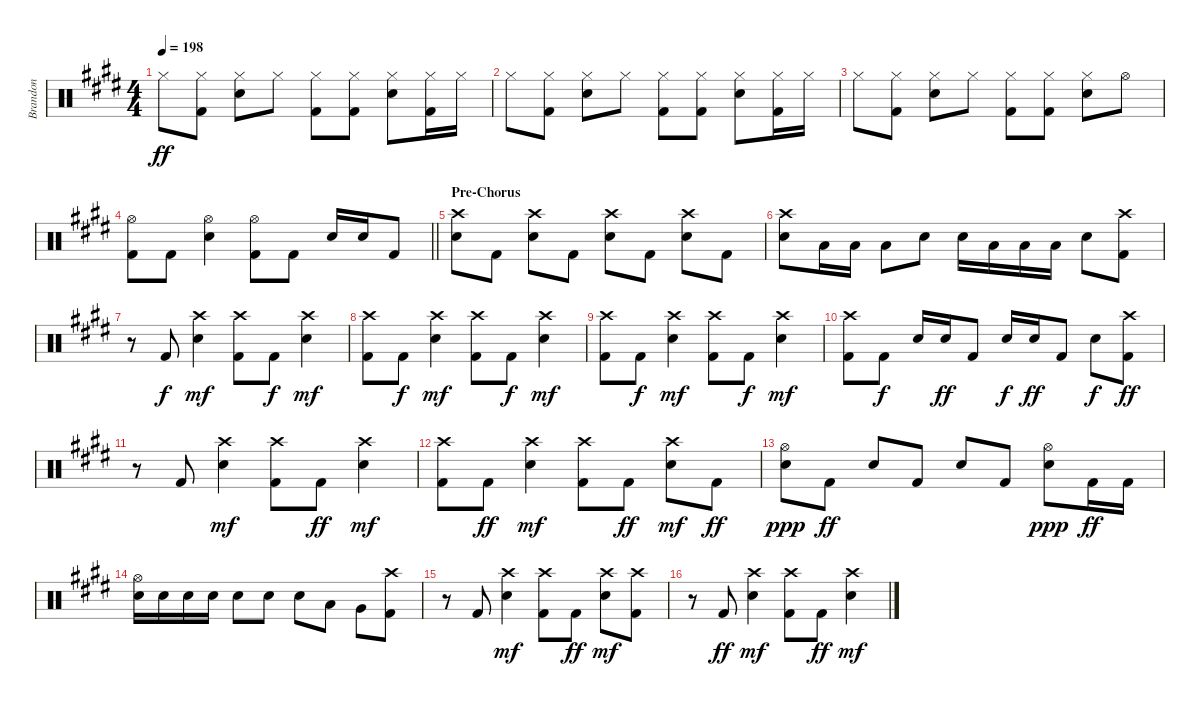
\track ("Brandon" "Brandon") {instrument percussion}
\staff {score}
\articulation defaults
\ts (4 4)
\tempo 198
\clef neutral
\ks e "Hi-Hat (closed)".8{dy ff}
("Kick (hit) 2" "Hi-Hat (closed)").8 ("Snare (hit) 2" "Hi-Hat (closed)").8 "Hi-Hat (closed)".8 ("Kick (hit) 2" "Hi-Hat (closed)").8 ("Kick (hit) 2" "Hi-Hat (closed)").8 ("Snare (hit) 2" "Hi-Hat (closed)").8 ("Kick (hit) 2" "Hi-Hat (closed)").16 "Hi-Hat (closed)".16 |
"Hi-Hat (closed)".8 ("Kick (hit) 2" "Hi-Hat (closed)").8 ("Snare (hit) 2" "Hi-Hat (closed)").8 "Hi-Hat (closed)".8 ("Kick (hit) 2" "Hi-Hat (closed)").8 ("Kick (hit) 2" "Hi-Hat (closed)").8 ("Snare (hit) 2" "Hi-Hat (closed)").8 ("Kick (hit) 2" "Hi-Hat (closed)").16 "Hi-Hat (closed)".16 |
"Hi-Hat (closed)".8 ("Kick (hit) 2" "Hi-Hat (closed)").8 ("Snare (hit) 2" "Hi-Hat (closed)").8 "Hi-Hat (closed)".8 ("Kick (hit) 2" "Hi-Hat (closed)").8 ("Kick (hit) 2" "Hi-Hat (closed)").8 ("Snare (hit) 2" "Hi-Hat (closed)").8 "Hi-Hat (open)".8 |
\barLineRight lightlight
("Kick (hit) 2" "Hi-Hat (open)").8 "Kick (hit) 2".8 ("Snare (hit) 2" "Hi-Hat (open)").4 ("Kick (hit) 2" "Hi-Hat (open)").8 "Kick (hit) 2".8 "Snare (hit) 2".16 "Snare (hit) 2".16 "Kick (hit) 2".8 |
\section ("" "Pre-Chorus")
("Snare (hit) 2" "Crash high (hit)").8 "Kick (hit) 2".8 ("Snare (hit) 2" "Crash high (hit)").8 "Kick (hit) 2".8 ("Snare (hit) 2" "Crash high (hit)").8 "Kick (hit) 2".8 ("Snare (hit) 2" "Crash high (hit)").8 "Kick (hit) 2".8 |
("Snare (hit) 2" "Crash high (hit)").8 "Low Floor Tom (hit)".16 "Low Floor Tom (hit)".16 "Low Floor Tom (hit)".8 "Snare (hit) 2".8 "Snare (hit) 2".16 "Low Floor Tom (hit)".16 "Low Floor Tom (hit)".16 "Low Floor Tom (hit)".16 "Snare (hit) 2".8 ("Crash high (hit)" "Kick (hit) 2").8 |
r.8 "Kick (hit) 2".8{dy f} ("Snare (hit) 2" "Crash high (hit)").4{dy mf} ("Kick (hit) 2" "Crash high (hit)").8 "Kick (hit) 2".8{dy f} ("Snare (hit) 2" "Crash high (hit)").4{dy mf} |
("Kick (hit) 2" "Crash high (hit)").8 "Kick (hit) 2".8{dy f} ("Snare (hit) 2" "Crash high (hit)").4{dy mf} ("Kick (hit) 2" "Crash high (hit)").8 "Kick (hit) 2".8{dy f} ("Snare (hit) 2" "Crash high (hit)").4{dy mf} |
("Kick (hit) 2" "Crash high (hit)").8 "Kick (hit) 2".8{dy f} ("Snare (hit) 2" "Crash high (hit)").4{dy mf} ("Kick (hit) 2" "Crash high (hit)").8 "Kick (hit) 2".8{dy f} ("Snare (hit) 2" "Crash high (hit)").4{dy mf} |
("Kick (hit) 2" "Crash high (hit)").8 "Kick (hit) 2".8{dy f} "Snare (hit) 2".16 "Snare (hit) 2".16{dy ff} "Kick (hit) 2".8 "Snare (hit) 2".16{dy f} "Snare (hit) 2".16{dy ff} "Kick (hit) 2".8 "Snare (hit) 2".8{dy f} ("Kick (hit) 2" "Crash high (hit)").8{dy ff} |
r.8 "Kick (hit) 2".8 ("Snare (hit) 2" "Crash high (hit)").4{dy mf} ("Kick (hit) 2" "Crash high (hit)").8 "Kick (hit) 2".8{dy ff} ("Snare (hit) 2" "Crash high (hit)").4{dy mf} |
("Kick (hit) 2" "Crash high (hit)").8 "Kick (hit) 2".8{dy ff} ("Snare (hit) 2" "Crash high (hit)").4{dy mf} ("Kick (hit) 2" "Crash high (hit)").8 "Kick (hit) 2".8{dy ff} ("Snare (hit) 2" "Crash high (hit)").8{dy mf} "Kick (hit) 2".8{dy ff} |
("Snare (hit) 2" "Hi-Hat (open)").8{dy ppp} "Kick (hit) 2".8{dy ff} "Snare (hit) 2".8 "Kick (hit) 2".8 "Snare (hit) 2".8 "Kick (hit) 2".8 ("Snare (hit) 2" "Hi-Hat (open)").8{dy ppp} "Kick (hit) 2".16{dy ff} "Kick (hit) 2".16 |
("Snare (hit) 2" "Hi-Hat (open)").16 "Snare (hit) 2".16 "Snare (hit) 2".16 "Snare (hit) 2".16 "Snare (hit) 2".8 "Snare (hit) 2".8 "Snare (hit) 2".8 "Low Tom (hit)".8 "Very Low Tom (hit)".8 ("Crash high (hit)" "Kick (hit) 2").8 |
r.8 "Kick (hit) 2".8 ("Snare (hit) 2" "Crash high (hit)").4{dy mf} ("Kick (hit) 2" "Crash high (hit)").8 "Kick (hit) 2".8{dy ff} ("Snare (hit) 2" "Crash high (hit)").8{dy mf} ("Kick (hit) 2" "Crash high (hit)").8 |
r.8 "Kick (hit) 2".8{dy ff} ("Snare (hit) 2" "Crash high (hit)").4{dy mf} ("Kick (hit) 2" "Crash high (hit)").8 "Kick (hit) 2".8{dy ff} ("Snare (hit) 2" "Crash high (hit)").4{dy mf}
